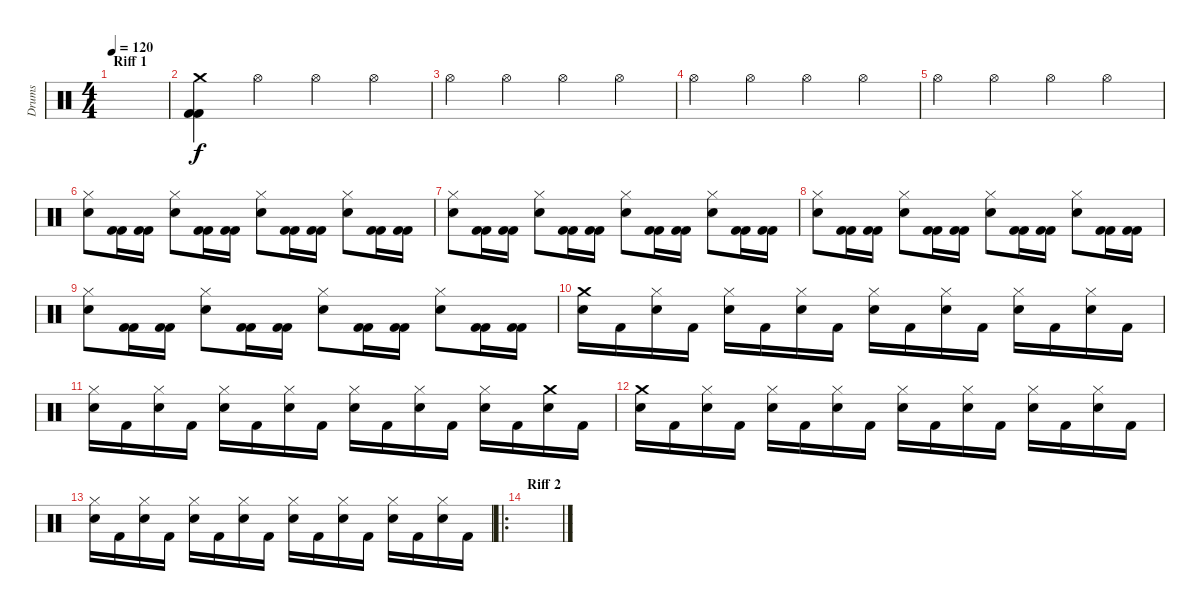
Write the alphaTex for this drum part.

\track ("Drums" "Drums") {instrument percussion}
\staff {score}
\articulation defaults
\ts (4 4)
\section ("" "Riff 1")
\tempo 120
\clef neutral
\ks c
|
("Crash medium (hit)" "Kick (hit) 2" "Kick (hit) 2").4 "Hi-Hat (open)".4 "Hi-Hat (open)".4 "Hi-Hat (open)".4 |
"Hi-Hat (open)".4 "Hi-Hat (open)".4 "Hi-Hat (open)".4 "Hi-Hat (open)".4 |
"Hi-Hat (open)".4 "Hi-Hat (open)".4 "Hi-Hat (open)".4 "Hi-Hat (open)".4 |
"Hi-Hat (open)".4 "Hi-Hat (open)".4 "Hi-Hat (open)".4 "Hi-Hat (open)".4 |
("Hi-Hat (closed)" "Electric Snare (hit)").8 ("Kick (hit) 2" "Kick (hit) 2").16 ("Kick (hit) 2" "Kick (hit) 2").16 ("Hi-Hat (closed)" "Electric Snare (hit)").8 ("Kick (hit) 2" "Kick (hit) 2").16 ("Kick (hit) 2" "Kick (hit) 2").16 ("Electric Snare (hit)" "Hi-Hat (closed)").8 ("Kick (hit) 2" "Kick (hit) 2").16 ("Kick (hit) 2" "Kick (hit) 2").16 ("Hi-Hat (closed)" "Electric Snare (hit)").8 ("Kick (hit) 2" "Kick (hit) 2").16 ("Kick (hit) 2" "Kick (hit) 2").16 |
("Hi-Hat (closed)" "Electric Snare (hit)").8 ("Kick (hit) 2" "Kick (hit) 2").16 ("Kick (hit) 2" "Kick (hit) 2").16 ("Hi-Hat (closed)" "Electric Snare (hit)").8 ("Kick (hit) 2" "Kick (hit) 2").16 ("Kick (hit) 2" "Kick (hit) 2").16 ("Electric Snare (hit)" "Hi-Hat (closed)").8 ("Kick (hit) 2" "Kick (hit) 2").16 ("Kick (hit) 2" "Kick (hit) 2").16 ("Hi-Hat (closed)" "Electric Snare (hit)").8 ("Kick (hit) 2" "Kick (hit) 2").16 ("Kick (hit) 2" "Kick (hit) 2").16 |
("Hi-Hat (closed)" "Electric Snare (hit)").8 ("Kick (hit) 2" "Kick (hit) 2").16 ("Kick (hit) 2" "Kick (hit) 2").16 ("Hi-Hat (closed)" "Electric Snare (hit)").8 ("Kick (hit) 2" "Kick (hit) 2").16 ("Kick (hit) 2" "Kick (hit) 2").16 ("Electric Snare (hit)" "Hi-Hat (closed)").8 ("Kick (hit) 2" "Kick (hit) 2").16 ("Kick (hit) 2" "Kick (hit) 2").16 ("Hi-Hat (closed)" "Electric Snare (hit)").8 ("Kick (hit) 2" "Kick (hit) 2").16 ("Kick (hit) 2" "Kick (hit) 2").16 |
("Hi-Hat (closed)" "Electric Snare (hit)").8 ("Kick (hit) 2" "Kick (hit) 2").16 ("Kick (hit) 2" "Kick (hit) 2").16 ("Hi-Hat (closed)" "Electric Snare (hit)").8 ("Kick (hit) 2" "Kick (hit) 2").16 ("Kick (hit) 2" "Kick (hit) 2").16 ("Electric Snare (hit)" "Hi-Hat (closed)").8 ("Kick (hit) 2" "Kick (hit) 2").16 ("Kick (hit) 2" "Kick (hit) 2").16 ("Hi-Hat (closed)" "Electric Snare (hit)").8 ("Kick (hit) 2" "Kick (hit) 2").16 ("Kick (hit) 2" "Kick (hit) 2").16 |
("Crash medium (hit)" "Electric Snare (hit)").16 "Kick (hit) 2".16 ("Electric Snare (hit)" "Hi-Hat (closed)").16 "Kick (hit) 2".16 ("Hi-Hat (closed)" "Electric Snare (hit)").16 "Kick (hit) 2".16 ("Electric Snare (hit)" "Hi-Hat (closed)").16 "Kick (hit) 2".16 ("Hi-Hat (closed)" "Electric Snare (hit)").16 "Kick (hit) 2".16 ("Electric Snare (hit)" "Hi-Hat (closed)").16 "Kick (hit) 2".16 ("Hi-Hat (closed)" "Electric Snare (hit)").16 "Kick (hit) 2".16 ("Electric Snare (hit)" "Hi-Hat (closed)").16 "Kick (hit) 2".16 |
("Hi-Hat (closed)" "Electric Snare (hit)").16 "Kick (hit) 2".16 ("Electric Snare (hit)" "Hi-Hat (closed)").16 "Kick (hit) 2".16 ("Hi-Hat (closed)" "Electric Snare (hit)").16 "Kick (hit) 2".16 ("Electric Snare (hit)" "Hi-Hat (closed)").16 "Kick (hit) 2".16 ("Hi-Hat (closed)" "Electric Snare (hit)").16 "Kick (hit) 2".16 ("Electric Snare (hit)" "Hi-Hat (closed)").16 "Kick (hit) 2".16 ("Hi-Hat (closed)" "Electric Snare (hit)").16 "Kick (hit) 2".16 ("Electric Snare (hit)" "Crash medium (hit)").16 "Kick (hit) 2".16 |
("Electric Snare (hit)" "Crash medium (hit)").16 "Kick (hit) 2".16 ("Electric Snare (hit)" "Hi-Hat (closed)").16 "Kick (hit) 2".16 ("Hi-Hat (closed)" "Electric Snare (hit)").16 "Kick (hit) 2".16 ("Electric Snare (hit)" "Hi-Hat (closed)").16 "Kick (hit) 2".16 ("Hi-Hat (closed)" "Electric Snare (hit)").16 "Kick (hit) 2".16 ("Electric Snare (hit)" "Hi-Hat (closed)").16 "Kick (hit) 2".16 ("Hi-Hat (closed)" "Electric Snare (hit)").16 "Kick (hit) 2".16 ("Electric Snare (hit)" "Hi-Hat (closed)").16 "Kick (hit) 2".16 |
("Hi-Hat (closed)" "Electric Snare (hit)").16 "Kick (hit) 2".16 ("Electric Snare (hit)" "Hi-Hat (closed)").16 "Kick (hit) 2".16 ("Hi-Hat (closed)" "Electric Snare (hit)").16 "Kick (hit) 2".16 ("Electric Snare (hit)" "Hi-Hat (closed)").16 "Kick (hit) 2".16 ("Hi-Hat (closed)" "Electric Snare (hit)").16 "Kick (hit) 2".16 ("Electric Snare (hit)" "Hi-Hat (closed)").16 "Kick (hit) 2".16 ("Hi-Hat (closed)" "Electric Snare (hit)").16 "Kick (hit) 2".16 ("Electric Snare (hit)" "Hi-Hat (closed)").16 "Kick (hit) 2".16 |
\ro
\section ("" "Riff 2")
